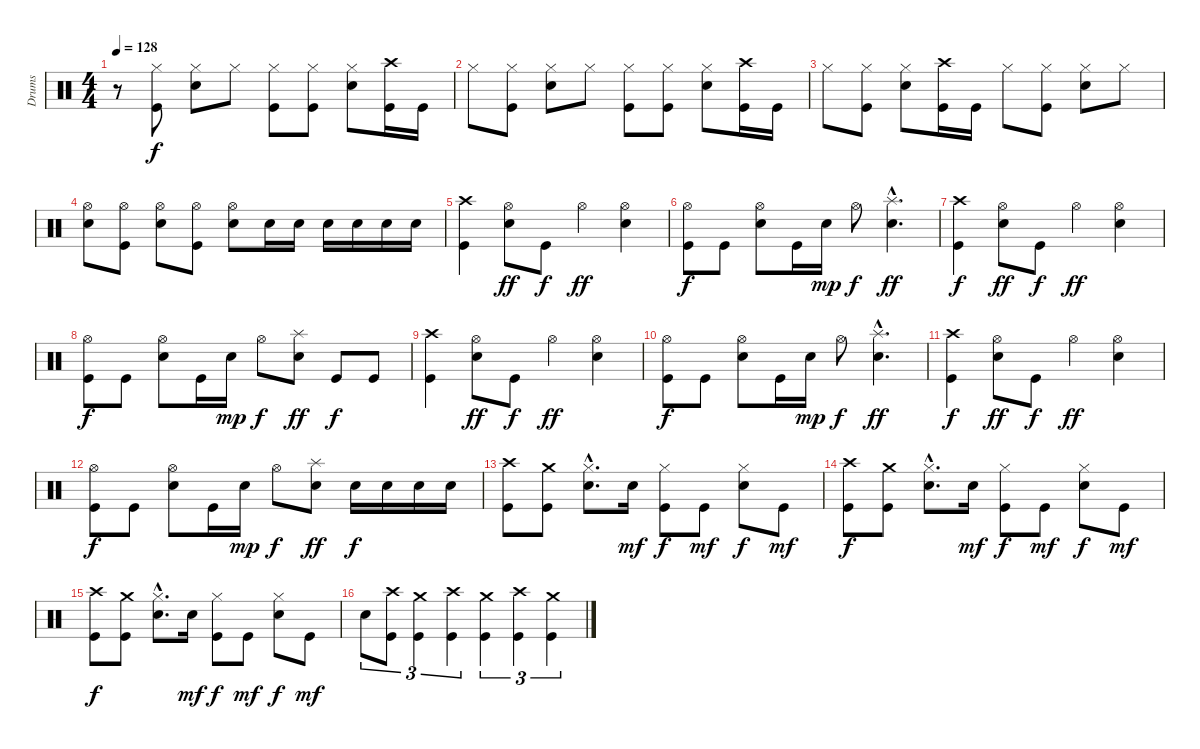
\track ("Drums" "Drums") {instrument percussion}
\staff {score}
\articulation defaults
\ts (4 4)
\tempo 128
\clef neutral
\ks c
r.8{dy f} ("Hi-Hat (closed)" "Kick (hit)").8 ("Hi-Hat (closed)" "Snare (hit) 2").8 "Hi-Hat (closed)".8 ("Hi-Hat (closed)" "Kick (hit)").8 ("Hi-Hat (closed)" "Kick (hit)").8 ("Hi-Hat (closed)" "Snare (hit) 2").8 ("Crash high (hit)" "Kick (hit)").16 "Kick (hit)".16 |
"Hi-Hat (closed)".8 ("Hi-Hat (closed)" "Kick (hit)").8 ("Hi-Hat (closed)" "Snare (hit) 2").8 "Hi-Hat (closed)".8 ("Hi-Hat (closed)" "Kick (hit)").8 ("Hi-Hat (closed)" "Kick (hit)").8 ("Hi-Hat (closed)" "Snare (hit) 2").8 ("Crash high (hit)" "Kick (hit)").16 "Kick (hit)".16 |
"Hi-Hat (closed)".8 ("Hi-Hat (closed)" "Kick (hit)").8 ("Hi-Hat (closed)" "Snare (hit) 2").8 ("Crash high (hit)" "Kick (hit)").16 "Kick (hit)".16 "Hi-Hat (closed)".8 ("Hi-Hat (closed)" "Kick (hit)").8 ("Hi-Hat (closed)" "Snare (hit) 2").8 "Hi-Hat (closed)".8 |
("Hi-Hat (open)" "Snare (hit) 2").8 ("Hi-Hat (open)" "Kick (hit)").8 ("Hi-Hat (open)" "Snare (hit) 2").8 ("Hi-Hat (open)" "Kick (hit)").8 ("Hi-Hat (open)" "Snare (hit) 2").8 "Snare (hit) 2".16 "Snare (hit) 2".16 "Snare (hit) 2".16 "Snare (hit) 2".16 "Snare (hit) 2".16 "Snare (hit) 2".16 |
("Crash high (hit)" "Kick (hit)").4 ("Hi-Hat (open)" "Snare (hit) 2").8{dy ff} "Kick (hit)".8{dy f} "Hi-Hat (open)".4{dy ff} ("Hi-Hat (open)" "Snare (hit) 2").4 |
("Hi-Hat (open)" "Kick (hit)").8{dy f} "Kick (hit)".8 ("Hi-Hat (open)" "Snare (hit) 2").8 "Kick (hit)".16 "Snare (hit) 2".16{dy mp} "Hi-Hat (open)".8{dy f} ("Splash (hit)"{hac} "Snare (hit) 2"{hac}).4{d dy ff} |
("Crash high (hit)" "Kick (hit)").4{dy f} ("Hi-Hat (open)" "Snare (hit) 2").8{dy ff} "Kick (hit)".8{dy f} "Hi-Hat (open)".4{dy ff} ("Hi-Hat (open)" "Snare (hit) 2").4 |
("Hi-Hat (open)" "Kick (hit)").8{dy f} "Kick (hit)".8 ("Hi-Hat (open)" "Snare (hit) 2").8 "Kick (hit)".16 "Snare (hit) 2".16{dy mp} "Hi-Hat (open)".8{dy f} ("Splash (hit)" "Snare (hit) 2").8{dy ff} "Kick (hit)".8{dy f} "Kick (hit)".8 |
("Crash high (hit)" "Kick (hit)").4 ("Hi-Hat (open)" "Snare (hit) 2").8{dy ff} "Kick (hit)".8{dy f} "Hi-Hat (open)".4{dy ff} ("Hi-Hat (open)" "Snare (hit) 2").4 |
("Hi-Hat (open)" "Kick (hit)").8{dy f} "Kick (hit)".8 ("Hi-Hat (open)" "Snare (hit) 2").8 "Kick (hit)".16 "Snare (hit) 2".16{dy mp} "Hi-Hat (open)".8{dy f} ("Splash (hit)"{hac} "Snare (hit) 2"{hac}).4{d dy ff} |
("Crash high (hit)" "Kick (hit)").4{dy f} ("Hi-Hat (open)" "Snare (hit) 2").8{dy ff} "Kick (hit)".8{dy f} "Hi-Hat (open)".4{dy ff} ("Hi-Hat (open)" "Snare (hit) 2").4 |
("Hi-Hat (open)" "Kick (hit)").8{dy f} "Kick (hit)".8 ("Hi-Hat (open)" "Snare (hit) 2").8 "Kick (hit)".16 "Snare (hit) 2".16{dy mp} "Hi-Hat (open)".8{dy f} ("Splash (hit)" "Snare (hit) 2").8{dy ff} "Snare (hit) 2".16{dy f} "Snare (hit) 2".16 "Snare (hit) 2".16 "Snare (hit) 2".16 |
("Crash high (hit)" "Kick (hit)").8 ("Crash medium (hit)" "Kick (hit)").8 ("Hi-Hat (closed)"{hac} "Snare (hit) 2"{hac}).8{d} "Snare (hit) 2".16{dy mf} ("Hi-Hat (closed)" "Kick (hit)").8{dy f} "Kick (hit)".8{dy mf} ("Hi-Hat (closed)" "Snare (hit) 2").8{dy f} "Kick (hit)".8{dy mf} |
("Crash high (hit)" "Kick (hit)").8{dy f} ("Crash medium (hit)" "Kick (hit)").8 ("Hi-Hat (closed)"{hac} "Snare (hit) 2"{hac}).8{d} "Snare (hit) 2".16{dy mf} ("Hi-Hat (closed)" "Kick (hit)").8{dy f} "Kick (hit)".8{dy mf} ("Hi-Hat (closed)" "Snare (hit) 2").8{dy f} "Kick (hit)".8{dy mf} |
("Crash high (hit)" "Kick (hit)").8{dy f} ("Crash medium (hit)" "Kick (hit)").8 ("Hi-Hat (closed)"{hac} "Snare (hit) 2"{hac}).8{d} "Snare (hit) 2".16{dy mf} ("Hi-Hat (closed)" "Kick (hit)").8{dy f} "Kick (hit)".8{dy mf} ("Hi-Hat (closed)" "Snare (hit) 2").8{dy f} "Kick (hit)".8{dy mf} |
"Snare (hit) 2".8{tu (3 2)} ("Crash high (hit)" "Kick (hit)").8{tu (3 2)} ("Crash medium (hit)" "Kick (hit)").4{tu (3 2)} ("Crash high (hit)" "Kick (hit)").4{tu (3 2)} ("Crash medium (hit)" "Kick (hit)").4{tu (3 2)} ("Crash high (hit)" "Kick (hit)").4{tu (3 2)} ("Crash medium (hit)" "Kick (hit)").4{tu (3 2)}
